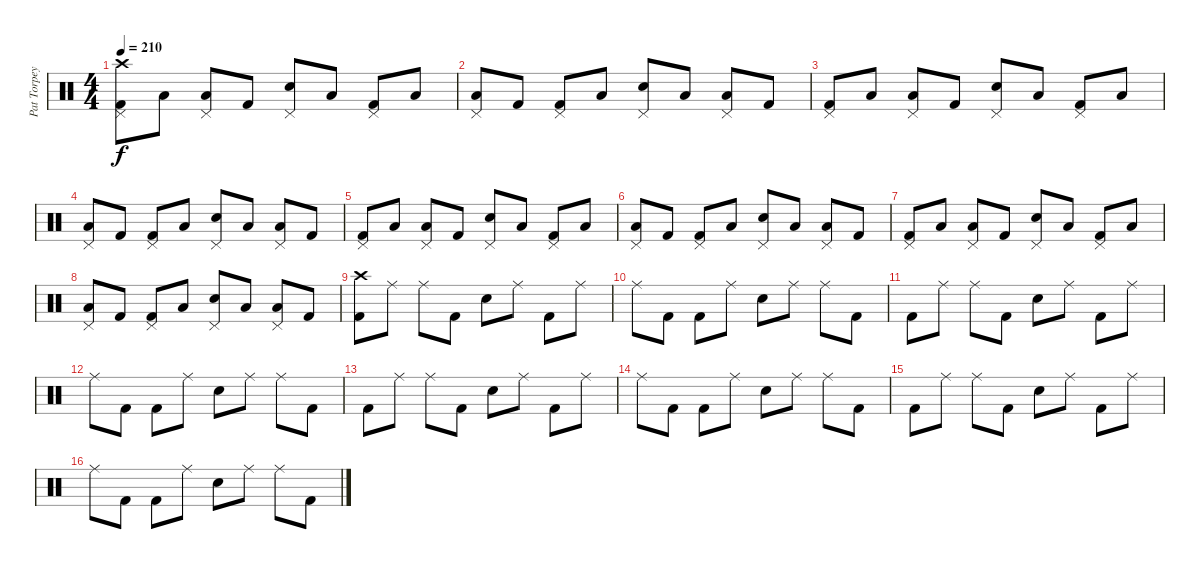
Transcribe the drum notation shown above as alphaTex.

\track ("Pat Torpey" "Pat Torpey") {instrument percussion}
\staff {score}
\articulation defaults
\ts (4 4)
\tempo 210
\clef neutral
\ks c
("Crash high (hit)" "Pedal Hi-Hat (hit)" "Kick (hit) 2").8{dy f} "Low Floor Tom (hit)".8 ("Pedal Hi-Hat (hit)" "Low Floor Tom (hit)").8 "Kick (hit) 2".8 ("Pedal Hi-Hat (hit)" "Snare (hit) 2").8 "Low Floor Tom (hit)".8 ("Pedal Hi-Hat (hit)" "Kick (hit) 2").8 "Low Floor Tom (hit)".8 |
("Pedal Hi-Hat (hit)" "Low Floor Tom (hit)").8 "Kick (hit) 2".8 ("Pedal Hi-Hat (hit)" "Kick (hit) 2").8 "Low Floor Tom (hit)".8 ("Pedal Hi-Hat (hit)" "Snare (hit) 2").8 "Low Floor Tom (hit)".8 ("Pedal Hi-Hat (hit)" "Low Floor Tom (hit)").8 "Kick (hit) 2".8 |
("Pedal Hi-Hat (hit)" "Kick (hit) 2").8 "Low Floor Tom (hit)".8 ("Pedal Hi-Hat (hit)" "Low Floor Tom (hit)").8 "Kick (hit) 2".8 ("Pedal Hi-Hat (hit)" "Snare (hit) 2").8 "Low Floor Tom (hit)".8 ("Pedal Hi-Hat (hit)" "Kick (hit) 2").8 "Low Floor Tom (hit)".8 |
("Pedal Hi-Hat (hit)" "Low Floor Tom (hit)").8 "Kick (hit) 2".8 ("Pedal Hi-Hat (hit)" "Kick (hit) 2").8 "Low Floor Tom (hit)".8 ("Pedal Hi-Hat (hit)" "Snare (hit) 2").8 "Low Floor Tom (hit)".8 ("Pedal Hi-Hat (hit)" "Low Floor Tom (hit)").8 "Kick (hit) 2".8 |
("Pedal Hi-Hat (hit)" "Kick (hit) 2").8 "Low Floor Tom (hit)".8 ("Pedal Hi-Hat (hit)" "Low Floor Tom (hit)").8 "Kick (hit) 2".8 ("Pedal Hi-Hat (hit)" "Snare (hit) 2").8 "Low Floor Tom (hit)".8 ("Pedal Hi-Hat (hit)" "Kick (hit) 2").8 "Low Floor Tom (hit)".8 |
("Pedal Hi-Hat (hit)" "Low Floor Tom (hit)").8 "Kick (hit) 2".8 ("Pedal Hi-Hat (hit)" "Kick (hit) 2").8 "Low Floor Tom (hit)".8 ("Pedal Hi-Hat (hit)" "Snare (hit) 2").8 "Low Floor Tom (hit)".8 ("Pedal Hi-Hat (hit)" "Low Floor Tom (hit)").8 "Kick (hit) 2".8 |
("Pedal Hi-Hat (hit)" "Kick (hit) 2").8 "Low Floor Tom (hit)".8 ("Pedal Hi-Hat (hit)" "Low Floor Tom (hit)").8 "Kick (hit) 2".8 ("Pedal Hi-Hat (hit)" "Snare (hit) 2").8 "Low Floor Tom (hit)".8 ("Pedal Hi-Hat (hit)" "Kick (hit) 2").8 "Low Floor Tom (hit)".8 |
("Pedal Hi-Hat (hit)" "Low Floor Tom (hit)").8 "Kick (hit) 2".8 ("Pedal Hi-Hat (hit)" "Kick (hit) 2").8 "Low Floor Tom (hit)".8 ("Pedal Hi-Hat (hit)" "Snare (hit) 2").8 "Low Floor Tom (hit)".8 ("Pedal Hi-Hat (hit)" "Low Floor Tom (hit)").8 "Kick (hit) 2".8 |
("Crash high (hit)" "Kick (hit) 2").8 "Ride (middle)".8 "Ride (middle)".8 "Kick (hit) 2".8 "Snare (hit) 2".8 "Ride (middle)".8 "Kick (hit) 2".8 "Ride (middle)".8 |
"Ride (middle)".8 "Kick (hit) 2".8 "Kick (hit) 2".8 "Ride (middle)".8 "Snare (hit) 2".8 "Ride (middle)".8 "Ride (middle)".8 "Kick (hit) 2".8 |
"Kick (hit) 2".8 "Ride (middle)".8 "Ride (middle)".8 "Kick (hit) 2".8 "Snare (hit) 2".8 "Ride (middle)".8 "Kick (hit) 2".8 "Ride (middle)".8 |
"Ride (middle)".8 "Kick (hit) 2".8 "Kick (hit) 2".8 "Ride (middle)".8 "Snare (hit) 2".8 "Ride (middle)".8 "Ride (middle)".8 "Kick (hit) 2".8 |
"Kick (hit) 2".8 "Ride (middle)".8 "Ride (middle)".8 "Kick (hit) 2".8 "Snare (hit) 2".8 "Ride (middle)".8 "Kick (hit) 2".8 "Ride (middle)".8 |
"Ride (middle)".8 "Kick (hit) 2".8 "Kick (hit) 2".8 "Ride (middle)".8 "Snare (hit) 2".8 "Ride (middle)".8 "Ride (middle)".8 "Kick (hit) 2".8 |
"Kick (hit) 2".8 "Ride (middle)".8 "Ride (middle)".8 "Kick (hit) 2".8 "Snare (hit) 2".8 "Ride (middle)".8 "Kick (hit) 2".8 "Ride (middle)".8 |
"Ride (middle)".8 "Kick (hit) 2".8 "Kick (hit) 2".8 "Ride (middle)".8 "Snare (hit) 2".8 "Ride (middle)".8 "Ride (middle)".8 "Kick (hit) 2".8
